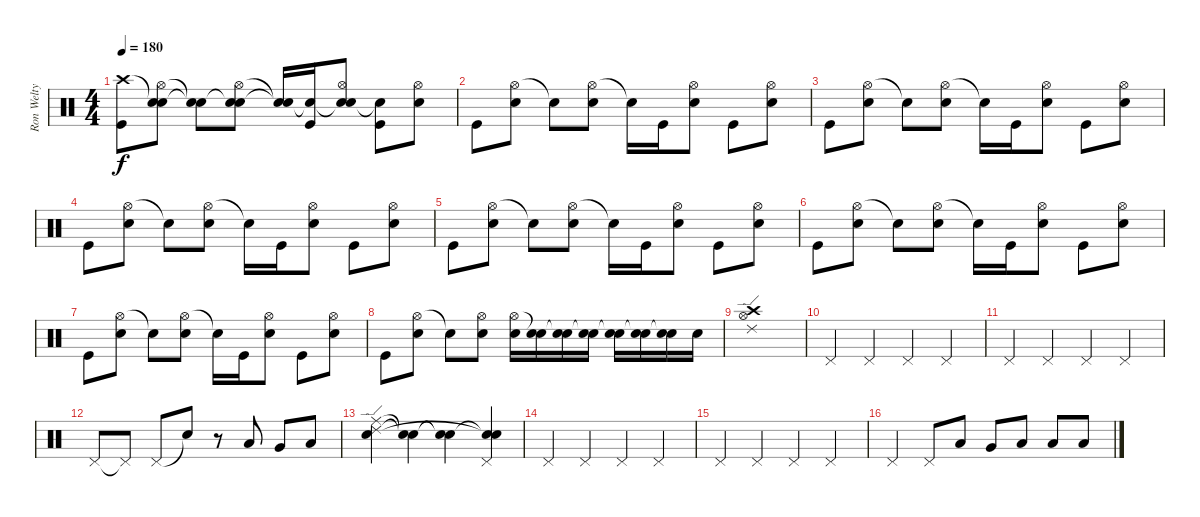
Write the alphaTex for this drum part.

\track ("Ron Welty" "Ron Welty") {instrument percussion}
\staff {score}
\articulation defaults
\ts (4 4)
\tempo 180
\clef neutral
\ks c
("Crash high (hit)" "Kick (hit)").8{dy f} ("Snare (hit)"{t} "Hi-Hat (open)" "Electric Snare (hit)").8 ("Snare (hit)"{t} "Snare (hit)"{t}).8 ("Snare (hit)"{t} "Hi-Hat (open)" "Electric Snare (hit)").8 ("Snare (hit)"{t} "Snare (hit)"{t}).16 ("Snare (hit)"{t} "Kick (hit)").16 ("Snare (hit)"{t} "Hi-Hat (open)" "Electric Snare (hit)").8 ("Snare (hit)"{t} "Kick (hit)").8 ("Hi-Hat (open)" "Electric Snare (hit)").8 |
"Kick (hit)".8 ("Hi-Hat (open)" "Electric Snare (hit)").8 "Snare (hit)"{t}.8 ("Hi-Hat (open)" "Electric Snare (hit)").8 "Snare (hit)"{t}.16 "Kick (hit)".16 ("Hi-Hat (open)" "Electric Snare (hit)").8 "Kick (hit)".8 ("Hi-Hat (open)" "Electric Snare (hit)").8 |
"Kick (hit)".8 ("Hi-Hat (open)" "Electric Snare (hit)").8 "Snare (hit)"{t}.8 ("Hi-Hat (open)" "Electric Snare (hit)").8 "Snare (hit)"{t}.16 "Kick (hit)".16 ("Hi-Hat (open)" "Electric Snare (hit)").8 "Kick (hit)".8 ("Hi-Hat (open)" "Electric Snare (hit)").8 |
"Kick (hit)".8 ("Hi-Hat (open)" "Electric Snare (hit)").8 "Snare (hit)"{t}.8 ("Hi-Hat (open)" "Electric Snare (hit)").8 "Snare (hit)"{t}.16 "Kick (hit)".16 ("Hi-Hat (open)" "Electric Snare (hit)").8 "Kick (hit)".8 ("Hi-Hat (open)" "Electric Snare (hit)").8 |
"Kick (hit)".8 ("Hi-Hat (open)" "Electric Snare (hit)").8 "Snare (hit)"{t}.8 ("Hi-Hat (open)" "Electric Snare (hit)").8 "Snare (hit)"{t}.16 "Kick (hit)".16 ("Hi-Hat (open)" "Electric Snare (hit)").8 "Kick (hit)".8 ("Hi-Hat (open)" "Electric Snare (hit)").8 |
"Kick (hit)".8 ("Hi-Hat (open)" "Electric Snare (hit)").8 "Snare (hit)"{t}.8 ("Hi-Hat (open)" "Electric Snare (hit)").8 "Snare (hit)"{t}.16 "Kick (hit)".16 ("Hi-Hat (open)" "Electric Snare (hit)").8 "Kick (hit)".8 ("Hi-Hat (open)" "Electric Snare (hit)").8 |
"Kick (hit)".8 ("Hi-Hat (open)" "Electric Snare (hit)").8 "Snare (hit)"{t}.8 ("Hi-Hat (open)" "Electric Snare (hit)").8 "Snare (hit)"{t}.16 "Kick (hit)".16 ("Hi-Hat (open)" "Electric Snare (hit)").8 "Kick (hit)".8 ("Hi-Hat (open)" "Electric Snare (hit)").8 |
"Kick (hit)".8 ("Hi-Hat (open)" "Electric Snare (hit)").8 "Snare (hit)"{t}.8 ("Hi-Hat (open)" "Electric Snare (hit)").8 ("Hi-Hat (open)" "Electric Snare (hit)").16 ("Snare (hit)"{t} "Electric Snare (hit)").16 ("Snare (hit)"{t} "Electric Snare (hit)").16 ("Snare (hit)"{t} "Electric Snare (hit)").16 ("Snare (hit)"{t} "Electric Snare (hit)").16 ("Snare (hit)"{t} "Electric Snare (hit)").16 ("Snare (hit)"{t} "Electric Snare (hit)").16 "Electric Snare (hit)".16 |
("Crash high (hit)" "Ride (edge) 2" "Hi-Hat (open)").1 |
"Pedal Hi-Hat (hit)".4{volume 6} "Pedal Hi-Hat (hit)".4 "Pedal Hi-Hat (hit)".4 "Pedal Hi-Hat (hit)".4 |
"Pedal Hi-Hat (hit)".4 "Pedal Hi-Hat (hit)".4 "Pedal Hi-Hat (hit)".4 "Pedal Hi-Hat (hit)".4 |
"Pedal Hi-Hat (hit)".8 "Pedal Hi-Hat (hit)"{t}.8 "Pedal Hi-Hat (hit)".8 "Snare (hit)"{t}.8 r.8 "Low Tom (hit)".8{volume 10} "Very Low Tom (hit)".8 "Low Floor Tom (hit)".8 |
("Ride (middle)" "Ride (edge) 2" "Electric Snare (hit)").4 ("Snare (hit)"{t} "Snare (hit)"{t}).4 ("Snare (hit)"{t} "Snare (hit)"{t}).4 ("Pedal Hi-Hat (hit)" "Snare (hit)"{t} "Snare (hit)"{t}).4{volume 5} |
"Pedal Hi-Hat (hit)".4 "Pedal Hi-Hat (hit)".4 "Pedal Hi-Hat (hit)".4 "Pedal Hi-Hat (hit)".4 |
"Pedal Hi-Hat (hit)".4 "Pedal Hi-Hat (hit)".4 "Pedal Hi-Hat (hit)".4 "Pedal Hi-Hat (hit)".4 |
"Pedal Hi-Hat (hit)".4 "Pedal Hi-Hat (hit)".8 "Low Tom (hit)".8{volume 10} "Very Low Tom (hit)".8 "Low Floor Tom (hit)".8 "Low Floor Tom (hit)".8 "Low Floor Tom (hit)".8
